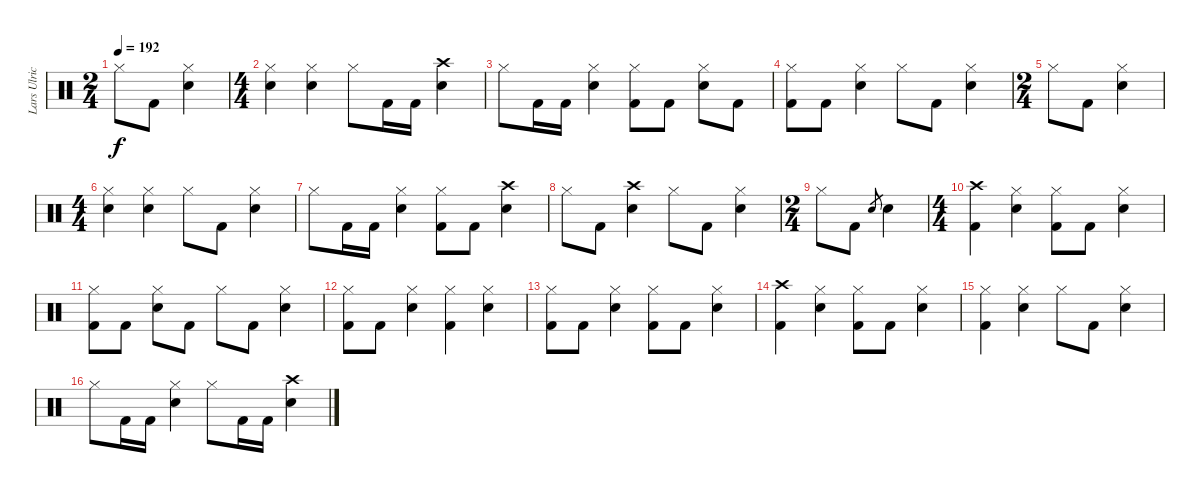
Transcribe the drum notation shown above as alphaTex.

\track ("Lars Ulrich - Drums" "Lars Ulric") {instrument percussion}
\staff {score}
\articulation defaults
\ts (2 4)
\tempo 192
\clef neutral
\ks c "Hi-Hat (closed)".8{dy f} "Kick (hit) 2".8
("Hi-Hat (closed)" "Snare (hit) 2").4 |
\ts (4 4)
("Hi-Hat (closed)" "Snare (hit) 2").4 ("Hi-Hat (closed)" "Snare (hit) 2").4 "Hi-Hat (closed)".8 "Kick (hit) 2".16 "Kick (hit) 2".16 ("Crash high (hit)" "Snare (hit) 2").4 |
"Hi-Hat (closed)".8 "Kick (hit) 2".16 "Kick (hit) 2".16 ("Hi-Hat (closed)" "Snare (hit) 2").4 ("Hi-Hat (closed)" "Kick (hit) 2").8 "Kick (hit) 2".8 ("Hi-Hat (closed)" "Snare (hit) 2").8 "Kick (hit) 2".8 |
("Hi-Hat (closed)" "Kick (hit) 2").8 "Kick (hit) 2".8 ("Hi-Hat (closed)" "Snare (hit) 2").4 "Hi-Hat (closed)".8 "Kick (hit) 2".8 ("Hi-Hat (closed)" "Snare (hit) 2").4 |
\ts (2 4)
"Hi-Hat (closed)".8 "Kick (hit) 2".8 ("Hi-Hat (closed)" "Snare (hit) 2").4 |
\ts (4 4)
("Hi-Hat (closed)" "Snare (hit) 2").4 ("Hi-Hat (closed)" "Snare (hit) 2").4 "Hi-Hat (closed)".8 "Kick (hit) 2".8 ("Hi-Hat (closed)" "Snare (hit) 2").4 |
"Hi-Hat (closed)".8 "Kick (hit) 2".16 "Kick (hit) 2".16 ("Hi-Hat (closed)" "Snare (hit) 2").4 ("Hi-Hat (closed)" "Kick (hit) 2").8 "Kick (hit) 2".8 ("Crash high (hit)" "Snare (hit) 2").4 |
"Hi-Hat (closed)".8 "Kick (hit) 2".8 ("Crash high (hit)" "Snare (hit) 2").4 "Hi-Hat (closed)".8 "Kick (hit) 2".8 ("Hi-Hat (closed)" "Snare (hit) 2").4 |
\ts (2 4)
"Hi-Hat (closed)".8 "Kick (hit) 2".8 "Snare (hit) 2".8{gr} "Snare (hit) 2".4 |
\ts (4 4)
("Crash high (hit)" "Kick (hit) 2").4 ("Hi-Hat (closed)" "Snare (hit) 2").4 ("Hi-Hat (closed)" "Kick (hit) 2").8 "Kick (hit) 2".8 ("Hi-Hat (closed)" "Snare (hit) 2").4 |
("Hi-Hat (closed)" "Kick (hit) 2").8 "Kick (hit) 2".8 ("Hi-Hat (closed)" "Snare (hit) 2").8 "Kick (hit) 2".8 "Hi-Hat (closed)".8 "Kick (hit) 2".8 ("Hi-Hat (closed)" "Snare (hit) 2").4 |
("Hi-Hat (closed)" "Kick (hit) 2").8 "Kick (hit) 2".8 ("Hi-Hat (closed)" "Snare (hit) 2").4 ("Hi-Hat (closed)" "Kick (hit) 2").4 ("Hi-Hat (closed)" "Snare (hit) 2").4 |
("Hi-Hat (closed)" "Kick (hit) 2").8 "Kick (hit) 2".8 ("Hi-Hat (closed)" "Snare (hit) 2").4 ("Hi-Hat (closed)" "Kick (hit) 2").8 "Kick (hit) 2".8 ("Hi-Hat (closed)" "Snare (hit) 2").4 |
("Crash high (hit)" "Kick (hit) 2").4 ("Hi-Hat (closed)" "Snare (hit) 2").4 ("Hi-Hat (closed)" "Kick (hit) 2").8 "Kick (hit) 2".8 ("Hi-Hat (closed)" "Snare (hit) 2").4 |
("Hi-Hat (closed)" "Kick (hit) 2").4 ("Hi-Hat (closed)" "Snare (hit) 2").4 "Hi-Hat (closed)".8 "Kick (hit) 2".8 ("Hi-Hat (closed)" "Snare (hit) 2").4 |
"Hi-Hat (closed)".8 "Kick (hit) 2".16 "Kick (hit) 2".16 ("Hi-Hat (closed)" "Snare (hit) 2").4 "Hi-Hat (closed)".8 "Kick (hit) 2".16 "Kick (hit) 2".16 ("Crash high (hit)" "Snare (hit) 2").4
